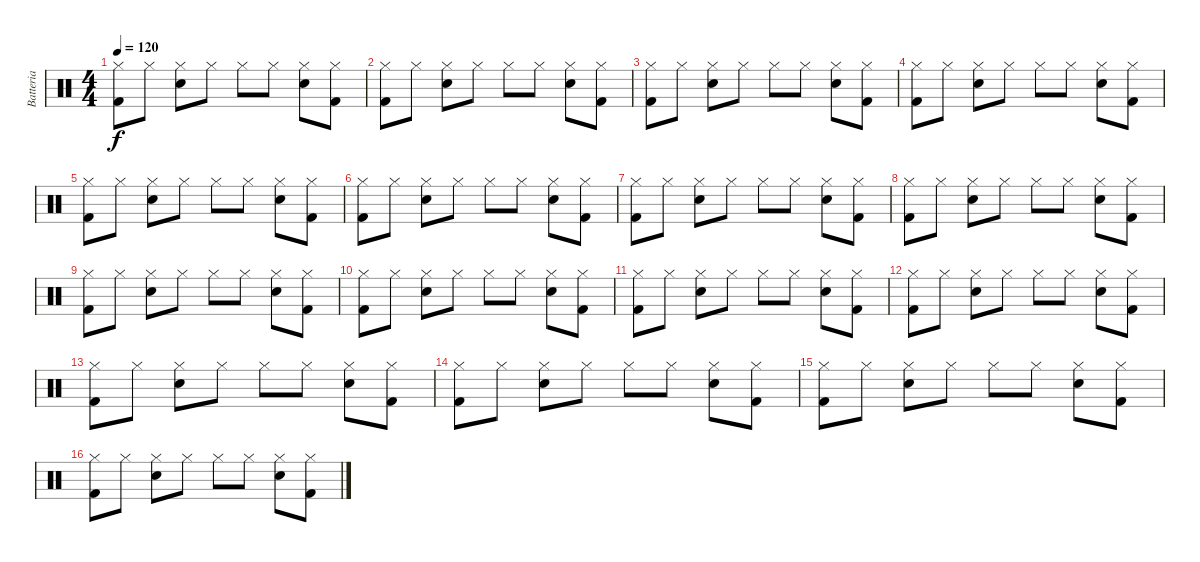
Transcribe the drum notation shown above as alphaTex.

\track ("Batteria" "Batteria") {instrument percussion}
\staff {score}
\articulation defaults
\ts (4 4)
\tempo 120
\clef neutral
\ks c
("Kick (hit) 2" "Hi-Hat (closed)").8{dy f} "Hi-Hat (closed)".8 ("Hi-Hat (closed)" "Snare (hit) 2").8 "Hi-Hat (closed)".8 "Hi-Hat (closed)".8 "Hi-Hat (closed)".8 ("Snare (hit) 2" "Hi-Hat (closed)").8 ("Hi-Hat (closed)" "Kick (hit) 2").8 |
("Kick (hit) 2" "Hi-Hat (closed)").8 "Hi-Hat (closed)".8 ("Hi-Hat (closed)" "Snare (hit) 2").8 "Hi-Hat (closed)".8 "Hi-Hat (closed)".8 "Hi-Hat (closed)".8 ("Snare (hit) 2" "Hi-Hat (closed)").8 ("Hi-Hat (closed)" "Kick (hit) 2").8 |
("Kick (hit) 2" "Hi-Hat (closed)").8 "Hi-Hat (closed)".8 ("Hi-Hat (closed)" "Snare (hit) 2").8 "Hi-Hat (closed)".8 "Hi-Hat (closed)".8 "Hi-Hat (closed)".8 ("Snare (hit) 2" "Hi-Hat (closed)").8 ("Hi-Hat (closed)" "Kick (hit) 2").8 |
("Kick (hit) 2" "Hi-Hat (closed)").8 "Hi-Hat (closed)".8 ("Hi-Hat (closed)" "Snare (hit) 2").8 "Hi-Hat (closed)".8 "Hi-Hat (closed)".8 "Hi-Hat (closed)".8 ("Snare (hit) 2" "Hi-Hat (closed)").8 ("Hi-Hat (closed)" "Kick (hit) 2").8 |
("Kick (hit) 2" "Hi-Hat (closed)").8 "Hi-Hat (closed)".8 ("Hi-Hat (closed)" "Snare (hit) 2").8 "Hi-Hat (closed)".8 "Hi-Hat (closed)".8 "Hi-Hat (closed)".8 ("Snare (hit) 2" "Hi-Hat (closed)").8 ("Hi-Hat (closed)" "Kick (hit) 2").8 |
("Kick (hit) 2" "Hi-Hat (closed)").8 "Hi-Hat (closed)".8 ("Hi-Hat (closed)" "Snare (hit) 2").8 "Hi-Hat (closed)".8 "Hi-Hat (closed)".8 "Hi-Hat (closed)".8 ("Snare (hit) 2" "Hi-Hat (closed)").8 ("Hi-Hat (closed)" "Kick (hit) 2").8 |
("Kick (hit) 2" "Hi-Hat (closed)").8 "Hi-Hat (closed)".8 ("Hi-Hat (closed)" "Snare (hit) 2").8 "Hi-Hat (closed)".8 "Hi-Hat (closed)".8 "Hi-Hat (closed)".8 ("Snare (hit) 2" "Hi-Hat (closed)").8 ("Hi-Hat (closed)" "Kick (hit) 2").8 |
("Kick (hit) 2" "Hi-Hat (closed)").8 "Hi-Hat (closed)".8 ("Hi-Hat (closed)" "Snare (hit) 2").8 "Hi-Hat (closed)".8 "Hi-Hat (closed)".8 "Hi-Hat (closed)".8 ("Snare (hit) 2" "Hi-Hat (closed)").8 ("Hi-Hat (closed)" "Kick (hit) 2").8 |
("Kick (hit) 2" "Hi-Hat (closed)").8 "Hi-Hat (closed)".8 ("Hi-Hat (closed)" "Snare (hit) 2").8 "Hi-Hat (closed)".8 "Hi-Hat (closed)".8 "Hi-Hat (closed)".8 ("Snare (hit) 2" "Hi-Hat (closed)").8 ("Hi-Hat (closed)" "Kick (hit) 2").8 |
("Kick (hit) 2" "Hi-Hat (closed)").8 "Hi-Hat (closed)".8 ("Hi-Hat (closed)" "Snare (hit) 2").8 "Hi-Hat (closed)".8 "Hi-Hat (closed)".8 "Hi-Hat (closed)".8 ("Snare (hit) 2" "Hi-Hat (closed)").8 ("Hi-Hat (closed)" "Kick (hit) 2").8 |
("Kick (hit) 2" "Hi-Hat (closed)").8 "Hi-Hat (closed)".8 ("Hi-Hat (closed)" "Snare (hit) 2").8 "Hi-Hat (closed)".8 "Hi-Hat (closed)".8 "Hi-Hat (closed)".8 ("Snare (hit) 2" "Hi-Hat (closed)").8 ("Hi-Hat (closed)" "Kick (hit) 2").8 |
("Kick (hit) 2" "Hi-Hat (closed)").8 "Hi-Hat (closed)".8 ("Hi-Hat (closed)" "Snare (hit) 2").8 "Hi-Hat (closed)".8 "Hi-Hat (closed)".8 "Hi-Hat (closed)".8 ("Snare (hit) 2" "Hi-Hat (closed)").8 ("Hi-Hat (closed)" "Kick (hit) 2").8 |
("Kick (hit) 2" "Hi-Hat (closed)").8 "Hi-Hat (closed)".8 ("Hi-Hat (closed)" "Snare (hit) 2").8 "Hi-Hat (closed)".8 "Hi-Hat (closed)".8 "Hi-Hat (closed)".8 ("Snare (hit) 2" "Hi-Hat (closed)").8 ("Hi-Hat (closed)" "Kick (hit) 2").8 |
("Kick (hit) 2" "Hi-Hat (closed)").8 "Hi-Hat (closed)".8 ("Hi-Hat (closed)" "Snare (hit) 2").8 "Hi-Hat (closed)".8 "Hi-Hat (closed)".8 "Hi-Hat (closed)".8 ("Snare (hit) 2" "Hi-Hat (closed)").8 ("Hi-Hat (closed)" "Kick (hit) 2").8 |
("Kick (hit) 2" "Hi-Hat (closed)").8 "Hi-Hat (closed)".8 ("Hi-Hat (closed)" "Snare (hit) 2").8 "Hi-Hat (closed)".8 "Hi-Hat (closed)".8 "Hi-Hat (closed)".8 ("Snare (hit) 2" "Hi-Hat (closed)").8 ("Hi-Hat (closed)" "Kick (hit) 2").8 |
("Kick (hit) 2" "Hi-Hat (closed)").8 "Hi-Hat (closed)".8 ("Hi-Hat (closed)" "Snare (hit) 2").8 "Hi-Hat (closed)".8 "Hi-Hat (closed)".8 "Hi-Hat (closed)".8 ("Snare (hit) 2" "Hi-Hat (closed)").8 ("Hi-Hat (closed)" "Kick (hit) 2").8
